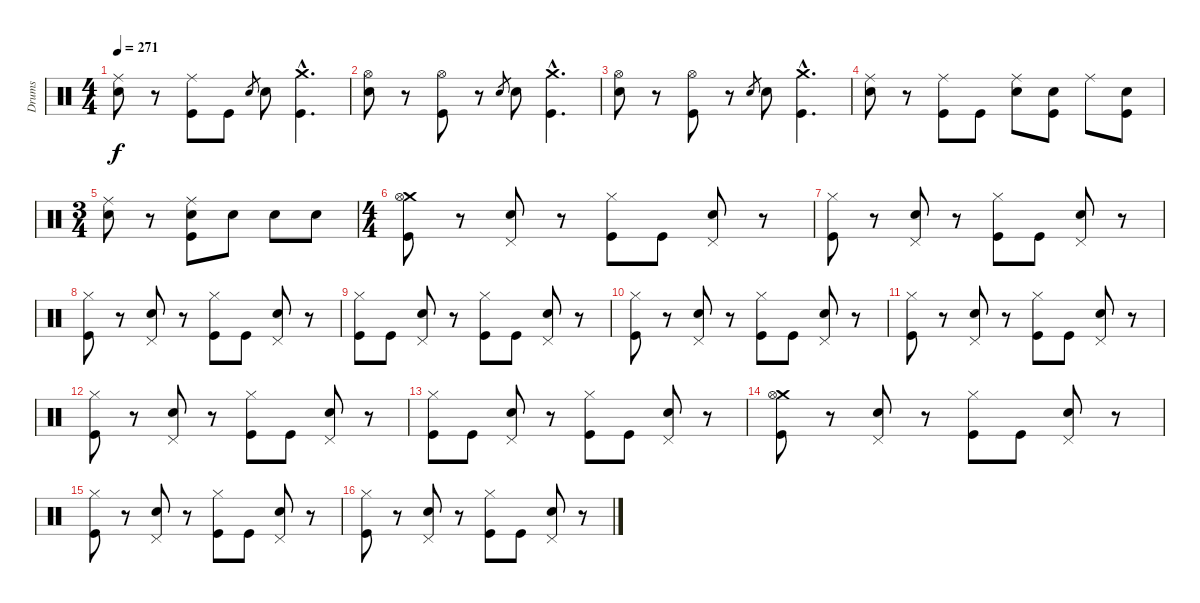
\track ("Drums" "Drums") {instrument percussion}
\staff {score}
\articulation defaults
\ts (4 4)
\tempo 271
\clef neutral
\ks c
("Ride (middle)" "Electric Snare (hit)").8{dy f} r.8 ("Ride (middle)" "Kick (hit)").8 "Kick (hit)".8 "Electric Snare (hit)".8{gr} "Electric Snare (hit)".8 ("Crash medium (hit)"{hac} "Kick (hit)"{hac}).4{d} |
("Hi-Hat (open)" "Electric Snare (hit)").8 r.8 ("Hi-Hat (open)" "Kick (hit)").8 r.8 "Electric Snare (hit)".8{gr} "Electric Snare (hit)".8 ("Crash medium (hit)"{hac} "Kick (hit)"{hac}).4{d} |
("Hi-Hat (open)" "Electric Snare (hit)").8 r.8 ("Hi-Hat (open)" "Kick (hit)").8 r.8 "Electric Snare (hit)".8{gr} "Electric Snare (hit)".8 ("Crash medium (hit)"{hac} "Kick (hit)"{hac}).4{d} |
("Ride (middle)" "Electric Snare (hit)").8 r.8 ("Ride (middle)" "Kick (hit)").8 "Kick (hit)".8 ("Ride (middle)" "Electric Snare (hit)").8 ("Electric Snare (hit)" "Kick (hit)").8 "Ride (middle)".8 ("Electric Snare (hit)" "Kick (hit)").8 |
\ts (3 4)
("Ride (middle)" "Electric Snare (hit)").8 r.8 ("Ride (middle)" "Electric Snare (hit)" "Kick (hit)").8 "Electric Snare (hit)".8 "Electric Snare (hit)".8 "Electric Snare (hit)".8 |
\ts (4 4)
("Crash medium (hit)" "Hi-Hat (open)" "Kick (hit)").8 r.8 ("Pedal Hi-Hat (hit)" "Electric Snare (hit)").8 r.8 ("Hi-Hat (closed)" "Kick (hit)").8 "Kick (hit)".8 ("Pedal Hi-Hat (hit)" "Electric Snare (hit)").8 r.8 |
("Hi-Hat (closed)" "Kick (hit)").8 r.8 ("Pedal Hi-Hat (hit)" "Electric Snare (hit)").8 r.8 ("Hi-Hat (closed)" "Kick (hit)").8 "Kick (hit)".8 ("Pedal Hi-Hat (hit)" "Electric Snare (hit)").8 r.8 |
("Hi-Hat (closed)" "Kick (hit)").8 r.8 ("Pedal Hi-Hat (hit)" "Electric Snare (hit)").8 r.8 ("Hi-Hat (closed)" "Kick (hit)").8 "Kick (hit)".8 ("Pedal Hi-Hat (hit)" "Electric Snare (hit)").8 r.8 |
("Hi-Hat (closed)" "Kick (hit)").8 "Kick (hit)".8 ("Pedal Hi-Hat (hit)" "Electric Snare (hit)").8 r.8 ("Hi-Hat (closed)" "Kick (hit)").8 "Kick (hit)".8 ("Pedal Hi-Hat (hit)" "Electric Snare (hit)").8 r.8 |
("Hi-Hat (closed)" "Kick (hit)").8 r.8 ("Pedal Hi-Hat (hit)" "Electric Snare (hit)").8 r.8 ("Hi-Hat (closed)" "Kick (hit)").8 "Kick (hit)".8 ("Pedal Hi-Hat (hit)" "Electric Snare (hit)").8 r.8 |
("Hi-Hat (closed)" "Kick (hit)").8 r.8 ("Pedal Hi-Hat (hit)" "Electric Snare (hit)").8 r.8 ("Hi-Hat (closed)" "Kick (hit)").8 "Kick (hit)".8 ("Pedal Hi-Hat (hit)" "Electric Snare (hit)").8 r.8 |
("Hi-Hat (closed)" "Kick (hit)").8 r.8 ("Pedal Hi-Hat (hit)" "Electric Snare (hit)").8 r.8 ("Hi-Hat (closed)" "Kick (hit)").8 "Kick (hit)".8 ("Pedal Hi-Hat (hit)" "Electric Snare (hit)").8 r.8 |
("Hi-Hat (closed)" "Kick (hit)").8 "Kick (hit)".8 ("Pedal Hi-Hat (hit)" "Electric Snare (hit)").8 r.8 ("Hi-Hat (closed)" "Kick (hit)").8 "Kick (hit)".8 ("Pedal Hi-Hat (hit)" "Electric Snare (hit)").8 r.8 |
("Crash medium (hit)" "Hi-Hat (open)" "Kick (hit)").8 r.8 ("Pedal Hi-Hat (hit)" "Electric Snare (hit)").8 r.8 ("Hi-Hat (closed)" "Kick (hit)").8 "Kick (hit)".8 ("Pedal Hi-Hat (hit)" "Electric Snare (hit)").8 r.8 |
("Hi-Hat (closed)" "Kick (hit)").8 r.8 ("Pedal Hi-Hat (hit)" "Electric Snare (hit)").8 r.8 ("Hi-Hat (closed)" "Kick (hit)").8 "Kick (hit)".8 ("Pedal Hi-Hat (hit)" "Electric Snare (hit)").8 r.8 |
("Hi-Hat (closed)" "Kick (hit)").8 r.8 ("Pedal Hi-Hat (hit)" "Electric Snare (hit)").8 r.8 ("Hi-Hat (closed)" "Kick (hit)").8 "Kick (hit)".8 ("Pedal Hi-Hat (hit)" "Electric Snare (hit)").8 r.8
